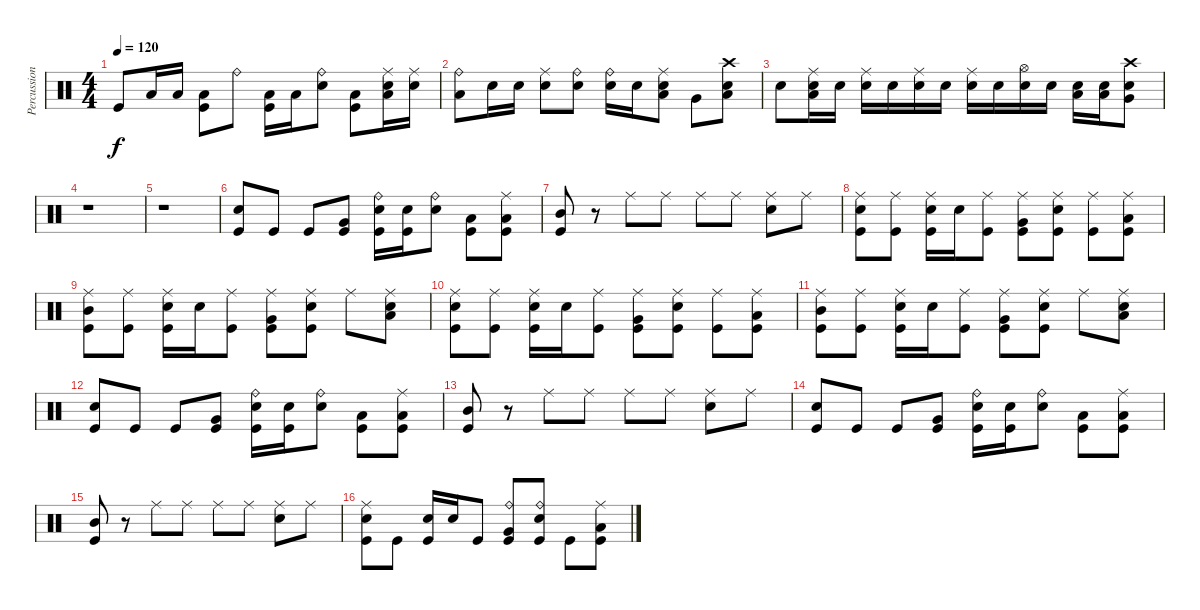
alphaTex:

\track ("Percussion" "Percussion") {instrument percussion}
\staff {score}
\articulation defaults
\ts (4 4)
\tempo 120
\clef neutral
\ks c "Kick (hit)".8{dy f} "Low Tom (hit)".16 "Low Tom (hit)".16
("Low Tom (hit)" "Kick (hit)").8 "Ride (bell)".8 ("Low Tom (hit)" "Kick (hit)").16 "Low Tom (hit)".16 ("Ride (bell)" "Electric Snare (hit)").8 ("Low Tom (hit)" "Kick (hit)").8 ("Ride (middle)" "Low Tom (hit)" "Electric Snare (hit)").16 ("Ride (middle)" "Electric Snare (hit)").16 |
("Ride (bell)" "Low Tom (hit)").8 "Electric Snare (hit)".16 "Electric Snare (hit)".16 ("Ride (middle)" "Electric Snare (hit)").8 ("Ride (bell)" "Electric Snare (hit)").8 ("Ride (bell)" "Electric Snare (hit)").16 "Electric Snare (hit)".16 ("Ride (middle)" "Low Tom (hit)" "Electric Snare (hit)").8 "Very Low Tom (hit)".8 ("Crash high (hit)" "Low Tom (hit)" "Electric Snare (hit)").8 |
"Electric Snare (hit)".8 ("Ride (middle)" "Low Tom (hit)" "Electric Snare (hit)").16 "Electric Snare (hit)".16 ("Ride (middle)" "Electric Snare (hit)").16 "Electric Snare (hit)".16 ("Ride (middle)" "Electric Snare (hit)").16 "Electric Snare (hit)".16 ("Ride (middle)" "Electric Snare (hit)").16 "Electric Snare (hit)".16 ("Hi-Hat (open)" "Electric Snare (hit)").16 "Electric Snare (hit)".16 ("Low Tom (hit)" "Electric Snare (hit)").16 ("Low Tom (hit)" "Electric Snare (hit)").16 ("Crash high (hit)" "Very Low Tom (hit)" "Electric Snare (hit)").8 |
r.1 |
r.1 |
("Electric Snare (hit)" "Kick (hit)").8 "Kick (hit)".8 "Kick (hit)".8 ("Very Low Tom (hit)" "Kick (hit)").8 ("Ride (bell)" "Electric Snare (hit)" "Kick (hit)").16 ("Electric Snare (hit)" "Kick (hit)").16 ("Ride (bell)" "Electric Snare (hit)").8 ("Low Tom (hit)" "Kick (hit)").8 ("Ride (middle)" "Low Tom (hit)" "Kick (hit)").8 |
("Mid Tom (hit)" "Kick (hit)").8 r.8 "Ride (middle)".8 "Ride (middle)".8 "Ride (middle)".8 "Ride (middle)".8 ("Ride (middle)" "Electric Snare (hit)").8 "Ride (middle)".8 |
("Ride (middle)" "Electric Snare (hit)" "Kick (hit)").8 ("Ride (middle)" "Kick (hit)").8 ("Ride (middle)" "Electric Snare (hit)" "Kick (hit)").16 "Electric Snare (hit)".16 ("Ride (middle)" "Kick (hit)").8 ("Ride (middle)" "Very Low Tom (hit)" "Kick (hit)").8 ("Ride (middle)" "Electric Snare (hit)" "Kick (hit)").8 ("Ride (middle)" "Kick (hit)").8 ("Ride (middle)" "Low Tom (hit)" "Kick (hit)").8 |
("Ride (middle)" "Mid Tom (hit)" "Kick (hit)").8 ("Ride (middle)" "Kick (hit)").8 ("Ride (middle)" "Electric Snare (hit)" "Kick (hit)").16 "Electric Snare (hit)".16 ("Ride (middle)" "Kick (hit)").8 ("Ride (middle)" "Very Low Tom (hit)" "Kick (hit)").8 ("Ride (middle)" "Electric Snare (hit)" "Kick (hit)").8 "Ride (middle)".8 ("Ride (middle)" "Low Tom (hit)" "Electric Snare (hit)").8 |
("Ride (middle)" "Electric Snare (hit)" "Kick (hit)").8 ("Ride (middle)" "Kick (hit)").8 ("Ride (middle)" "Electric Snare (hit)" "Kick (hit)").16 "Electric Snare (hit)".16 ("Ride (middle)" "Kick (hit)").8 ("Ride (middle)" "Very Low Tom (hit)" "Kick (hit)").8 ("Ride (middle)" "Electric Snare (hit)" "Kick (hit)").8 ("Ride (middle)" "Kick (hit)").8 ("Ride (middle)" "Low Tom (hit)" "Kick (hit)").8 |
("Ride (middle)" "Mid Tom (hit)" "Kick (hit)").8 ("Ride (middle)" "Kick (hit)").8 ("Ride (middle)" "Electric Snare (hit)" "Kick (hit)").16 "Electric Snare (hit)".16 ("Ride (middle)" "Kick (hit)").8 ("Ride (middle)" "Very Low Tom (hit)" "Kick (hit)").8 ("Ride (middle)" "Electric Snare (hit)" "Kick (hit)").8 "Ride (middle)".8 ("Ride (middle)" "Low Tom (hit)" "Electric Snare (hit)").8 |
("Electric Snare (hit)" "Kick (hit)").8 "Kick (hit)".8 "Kick (hit)".8 ("Very Low Tom (hit)" "Kick (hit)").8 ("Ride (bell)" "Electric Snare (hit)" "Kick (hit)").16 ("Electric Snare (hit)" "Kick (hit)").16 ("Ride (bell)" "Electric Snare (hit)").8 ("Low Tom (hit)" "Kick (hit)").8 ("Ride (middle)" "Low Tom (hit)" "Kick (hit)").8 |
("Mid Tom (hit)" "Kick (hit)").8 r.8 "Ride (middle)".8 "Ride (middle)".8 "Ride (middle)".8 "Ride (middle)".8 ("Ride (middle)" "Electric Snare (hit)").8 "Ride (middle)".8 |
("Electric Snare (hit)" "Kick (hit)").8 "Kick (hit)".8 "Kick (hit)".8 ("Very Low Tom (hit)" "Kick (hit)").8 ("Ride (bell)" "Electric Snare (hit)" "Kick (hit)").16 ("Electric Snare (hit)" "Kick (hit)").16 ("Ride (bell)" "Electric Snare (hit)").8 ("Low Tom (hit)" "Kick (hit)").8 ("Ride (middle)" "Low Tom (hit)" "Kick (hit)").8 |
("Mid Tom (hit)" "Kick (hit)").8 r.8 "Ride (middle)".8 "Ride (middle)".8 "Ride (middle)".8 "Ride (middle)".8 ("Ride (middle)" "Electric Snare (hit)").8 "Ride (middle)".8 |
("Ride (middle)" "Electric Snare (hit)" "Kick (hit)").8 "Kick (hit)".8 ("Electric Snare (hit)" "Kick (hit)").16 "Electric Snare (hit)".16 "Kick (hit)".8 ("Ride (bell)" "Very Low Tom (hit)" "Kick (hit)").8 ("Ride (bell)" "Electric Snare (hit)" "Kick (hit)").8 "Kick (hit)".8 ("Ride (middle)" "Low Tom (hit)" "Kick (hit)").8
